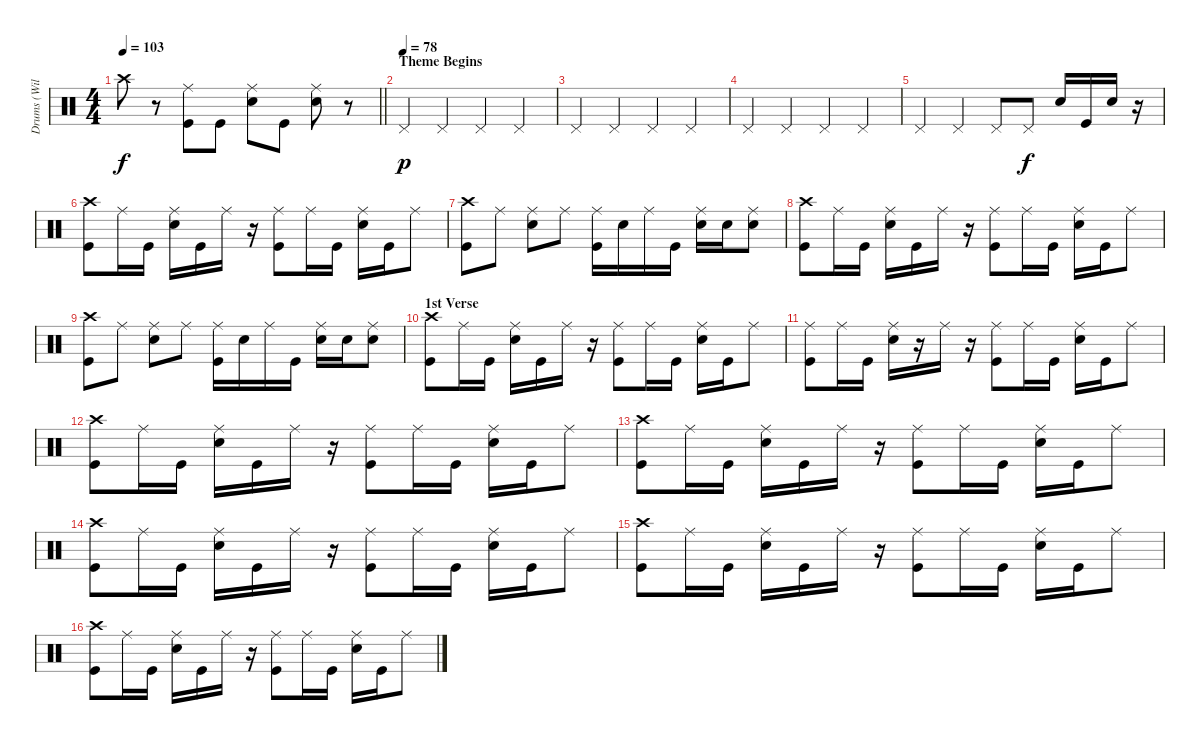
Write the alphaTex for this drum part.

\track ("Drums (William Ward)" "Drums (Wil") {instrument percussion}
\staff {score}
\articulation defaults
\ts (4 4)
\tempo 103
\clef neutral
\barLineRight lightlight
\ks c "Crash high (hit)".8{dy f}
r.8 ("Ride (middle)" "Kick (hit)").8 "Kick (hit)".8 ("Ride (middle)" "Electric Snare (hit)").8 "Kick (hit)".8 ("Ride (middle)" "Electric Snare (hit)").8 r.8 |
\section ("" "Theme Begins")
\tempo (78)
"Pedal Hi-Hat (hit)".4{dy p} "Pedal Hi-Hat (hit)".4 "Pedal Hi-Hat (hit)".4 "Pedal Hi-Hat (hit)".4 |
"Pedal Hi-Hat (hit)".4 "Pedal Hi-Hat (hit)".4 "Pedal Hi-Hat (hit)".4 "Pedal Hi-Hat (hit)".4 |
"Pedal Hi-Hat (hit)".4 "Pedal Hi-Hat (hit)".4 "Pedal Hi-Hat (hit)".4 "Pedal Hi-Hat (hit)".4 |
"Pedal Hi-Hat (hit)".4 "Pedal Hi-Hat (hit)".4 "Pedal Hi-Hat (hit)".8 "Pedal Hi-Hat (hit)".8{dy f} "Electric Snare (hit)".16 "Kick (hit)".16 "Electric Snare (hit)".16 r.16 |
("Crash high (hit)" "Kick (hit)").8 "Ride (middle)".16 "Kick (hit)".16 ("Ride (middle)" "Electric Snare (hit)").16 "Kick (hit)".16 "Ride (middle)".16 r.16 ("Ride (middle)" "Kick (hit)").8 "Ride (middle)".16 "Kick (hit)".16 ("Ride (middle)" "Electric Snare (hit)").16 "Kick (hit)".16 "Ride (middle)".8 |
("Crash high (hit)" "Kick (hit)").8 "Ride (middle)".8 ("Ride (middle)" "Electric Snare (hit)").8 "Ride (middle)".8 ("Ride (middle)" "Kick (hit)").16 "Electric Snare (hit)".16 "Ride (middle)".16 "Kick (hit)".16 ("Ride (middle)" "Electric Snare (hit)").16 "Electric Snare (hit)".16 ("Ride (middle)" "Electric Snare (hit)").8 |
("Crash high (hit)" "Kick (hit)").8 "Ride (middle)".16 "Kick (hit)".16 ("Ride (middle)" "Electric Snare (hit)").16 "Kick (hit)".16 "Ride (middle)".16 r.16 ("Ride (middle)" "Kick (hit)").8 "Ride (middle)".16 "Kick (hit)".16 ("Ride (middle)" "Electric Snare (hit)").16 "Kick (hit)".16 "Ride (middle)".8 |
("Crash high (hit)" "Kick (hit)").8 "Ride (middle)".8 ("Ride (middle)" "Electric Snare (hit)").8 "Ride (middle)".8 ("Ride (middle)" "Kick (hit)").16 "Electric Snare (hit)".16 "Ride (middle)".16 "Kick (hit)".16 ("Ride (middle)" "Electric Snare (hit)").16 "Electric Snare (hit)".16 ("Ride (middle)" "Electric Snare (hit)").8 |
\section ("" "1st Verse")
("Crash high (hit)" "Kick (hit)").8 "Ride (middle)".16 "Kick (hit)".16 ("Ride (middle)" "Electric Snare (hit)").16 "Kick (hit)".16 "Ride (middle)".16 r.16 ("Ride (middle)" "Kick (hit)").8 "Ride (middle)".16 "Kick (hit)".16 ("Ride (middle)" "Electric Snare (hit)").16 "Kick (hit)".16 "Ride (middle)".8 |
("Ride (middle)" "Kick (hit)").8 "Ride (middle)".16 "Kick (hit)".16 ("Ride (middle)" "Electric Snare (hit)").16 r.16 "Ride (middle)".16 r.16 ("Ride (middle)" "Kick (hit)").8 "Ride (middle)".16 "Kick (hit)".16 ("Ride (middle)" "Electric Snare (hit)").16 "Kick (hit)".16 "Ride (middle)".8 |
("Crash high (hit)" "Kick (hit)").8 "Ride (middle)".16 "Kick (hit)".16 ("Ride (middle)" "Electric Snare (hit)").16 "Kick (hit)".16 "Ride (middle)".16 r.16 ("Ride (middle)" "Kick (hit)").8 "Ride (middle)".16 "Kick (hit)".16 ("Ride (middle)" "Electric Snare (hit)").16 "Kick (hit)".16 "Ride (middle)".8 |
("Crash high (hit)" "Kick (hit)").8 "Ride (middle)".16 "Kick (hit)".16 ("Ride (middle)" "Electric Snare (hit)").16 "Kick (hit)".16 "Ride (middle)".16 r.16 ("Ride (middle)" "Kick (hit)").8 "Ride (middle)".16 "Kick (hit)".16 ("Ride (middle)" "Electric Snare (hit)").16 "Kick (hit)".16 "Ride (middle)".8 |
("Crash high (hit)" "Kick (hit)").8 "Ride (middle)".16 "Kick (hit)".16 ("Ride (middle)" "Electric Snare (hit)").16 "Kick (hit)".16 "Ride (middle)".16 r.16 ("Ride (middle)" "Kick (hit)").8 "Ride (middle)".16 "Kick (hit)".16 ("Ride (middle)" "Electric Snare (hit)").16 "Kick (hit)".16 "Ride (middle)".8 |
("Crash high (hit)" "Kick (hit)").8 "Ride (middle)".16 "Kick (hit)".16 ("Ride (middle)" "Electric Snare (hit)").16 "Kick (hit)".16 "Ride (middle)".16 r.16 ("Ride (middle)" "Kick (hit)").8 "Ride (middle)".16 "Kick (hit)".16 ("Ride (middle)" "Electric Snare (hit)").16 "Kick (hit)".16 "Ride (middle)".8 |
("Crash high (hit)" "Kick (hit)").8 "Ride (middle)".16 "Kick (hit)".16 ("Ride (middle)" "Electric Snare (hit)").16 "Kick (hit)".16 "Ride (middle)".16 r.16 ("Ride (middle)" "Kick (hit)").8 "Ride (middle)".16 "Kick (hit)".16 ("Ride (middle)" "Electric Snare (hit)").16 "Kick (hit)".16 "Ride (middle)".8
